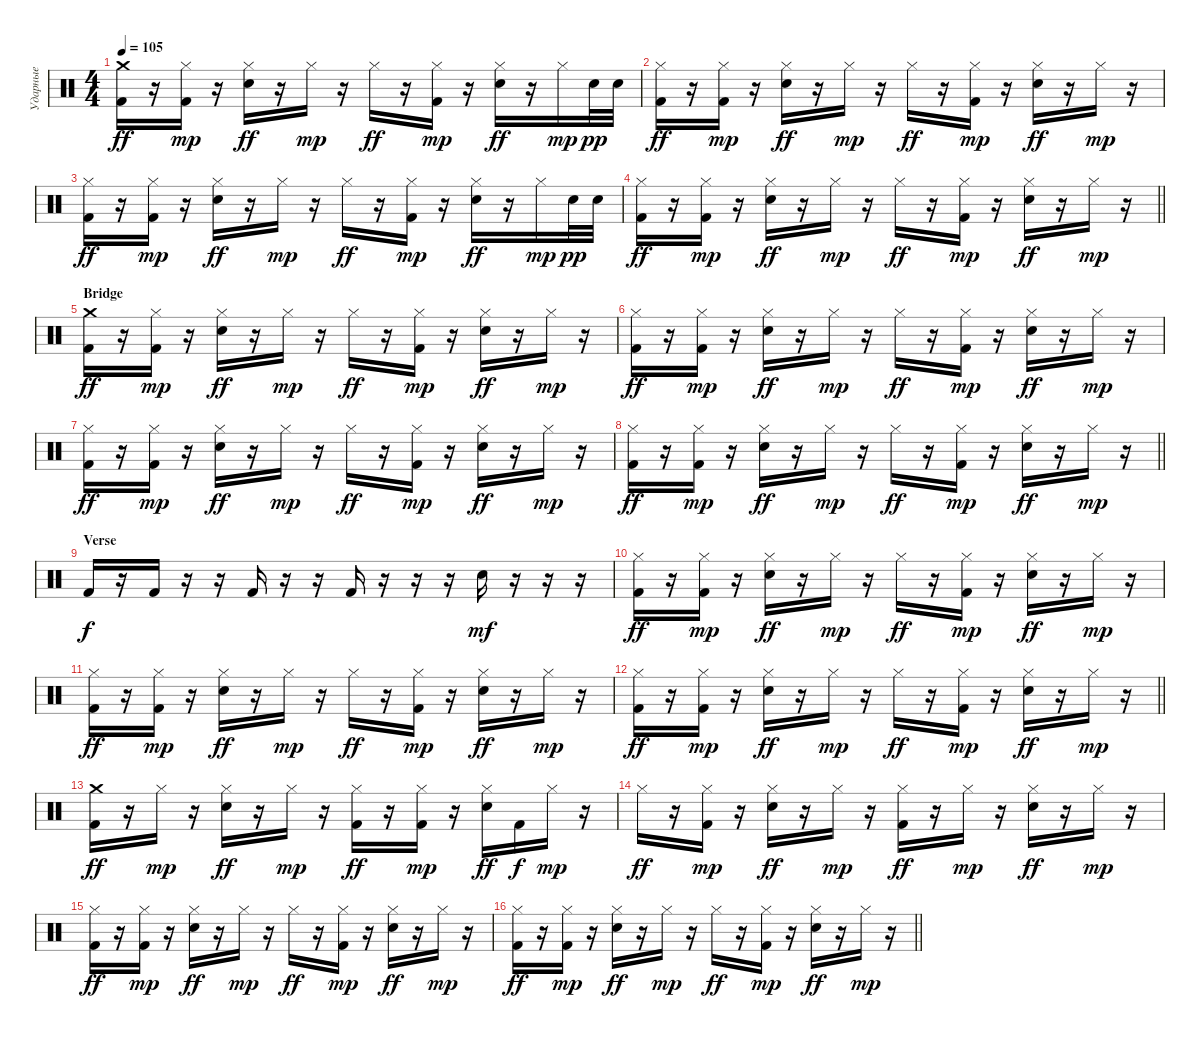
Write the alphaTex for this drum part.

\track ("Ударные" "Ударные") {instrument percussion}
\staff {score}
\articulation defaults
\ts (4 4)
\tempo 105
\clef neutral
\ks c
("Crash medium (hit)" "Kick (hit) 2").16{dy ff} r.16 ("Hi-Hat (closed)" "Kick (hit) 2").16{dy mp} r.16 ("Hi-Hat (closed)" "Electric Snare (hit)").16{dy ff} r.16 "Hi-Hat (closed)".16{dy mp} r.16 "Hi-Hat (closed)".16{dy ff} r.16 ("Hi-Hat (closed)" "Kick (hit) 2").16{dy mp} r.16 ("Hi-Hat (closed)" "Electric Snare (hit)").16{dy ff} r.16 "Hi-Hat (closed)".16{dy mp} "Electric Snare (hit)".32{dy pp} "Electric Snare (hit)".32 |
("Hi-Hat (closed)" "Kick (hit) 2").16{dy ff} r.16 ("Hi-Hat (closed)" "Kick (hit) 2").16{dy mp} r.16 ("Hi-Hat (closed)" "Electric Snare (hit)").16{dy ff} r.16 "Hi-Hat (closed)".16{dy mp} r.16 "Hi-Hat (closed)".16{dy ff} r.16 ("Hi-Hat (closed)" "Kick (hit) 2").16{dy mp} r.16 ("Hi-Hat (closed)" "Electric Snare (hit)").16{dy ff} r.16 "Hi-Hat (closed)".16{dy mp} r.16 |
("Hi-Hat (closed)" "Kick (hit) 2").16{dy ff} r.16 ("Hi-Hat (closed)" "Kick (hit) 2").16{dy mp} r.16 ("Hi-Hat (closed)" "Electric Snare (hit)").16{dy ff} r.16 "Hi-Hat (closed)".16{dy mp} r.16 "Hi-Hat (closed)".16{dy ff} r.16 ("Hi-Hat (closed)" "Kick (hit) 2").16{dy mp} r.16 ("Hi-Hat (closed)" "Electric Snare (hit)").16{dy ff} r.16 "Hi-Hat (closed)".16{dy mp} "Electric Snare (hit)".32{dy pp} "Electric Snare (hit)".32 |
\barLineRight lightlight
("Hi-Hat (closed)" "Kick (hit) 2").16{dy ff} r.16 ("Hi-Hat (closed)" "Kick (hit) 2").16{dy mp} r.16 ("Hi-Hat (closed)" "Electric Snare (hit)").16{dy ff} r.16 "Hi-Hat (closed)".16{dy mp} r.16 "Hi-Hat (closed)".16{dy ff} r.16 ("Hi-Hat (closed)" "Kick (hit) 2").16{dy mp} r.16 ("Hi-Hat (closed)" "Electric Snare (hit)").16{dy ff} r.16 "Hi-Hat (closed)".16{dy mp} r.16 |
\section ("" "Bridge")
("Crash medium (hit)" "Kick (hit) 2").16{dy ff} r.16 ("Hi-Hat (closed)" "Kick (hit) 2").16{dy mp} r.16 ("Hi-Hat (closed)" "Electric Snare (hit)").16{dy ff} r.16 "Hi-Hat (closed)".16{dy mp} r.16 "Hi-Hat (closed)".16{dy ff} r.16 ("Hi-Hat (closed)" "Kick (hit) 2").16{dy mp} r.16 ("Hi-Hat (closed)" "Electric Snare (hit)").16{dy ff} r.16 "Hi-Hat (closed)".16{dy mp} r.16 |
("Hi-Hat (closed)" "Kick (hit) 2").16{dy ff} r.16 ("Hi-Hat (closed)" "Kick (hit) 2").16{dy mp} r.16 ("Hi-Hat (closed)" "Electric Snare (hit)").16{dy ff} r.16 "Hi-Hat (closed)".16{dy mp} r.16 "Hi-Hat (closed)".16{dy ff} r.16 ("Hi-Hat (closed)" "Kick (hit) 2").16{dy mp} r.16 ("Hi-Hat (closed)" "Electric Snare (hit)").16{dy ff} r.16 "Hi-Hat (closed)".16{dy mp} r.16 |
("Hi-Hat (closed)" "Kick (hit) 2").16{dy ff} r.16 ("Hi-Hat (closed)" "Kick (hit) 2").16{dy mp} r.16 ("Hi-Hat (closed)" "Electric Snare (hit)").16{dy ff} r.16 "Hi-Hat (closed)".16{dy mp} r.16 "Hi-Hat (closed)".16{dy ff} r.16 ("Hi-Hat (closed)" "Kick (hit) 2").16{dy mp} r.16 ("Hi-Hat (closed)" "Electric Snare (hit)").16{dy ff} r.16 "Hi-Hat (closed)".16{dy mp} r.16 |
\barLineRight lightlight
("Hi-Hat (closed)" "Kick (hit) 2").16{dy ff} r.16 ("Hi-Hat (closed)" "Kick (hit) 2").16{dy mp} r.16 ("Hi-Hat (closed)" "Electric Snare (hit)").16{dy ff} r.16 "Hi-Hat (closed)".16{dy mp} r.16 "Hi-Hat (closed)".16{dy ff} r.16 ("Hi-Hat (closed)" "Kick (hit) 2").16{dy mp} r.16 ("Hi-Hat (closed)" "Electric Snare (hit)").16{dy ff} r.16 "Hi-Hat (closed)".16{dy mp} r.16 |
\section ("" "Verse")
"Kick (hit) 2".16{dy f} r.16 "Kick (hit) 2".16 r.16 r.16 "Kick (hit) 2".16 r.16 r.16 "Kick (hit) 2".16 r.16 r.16 r.16 "Electric Snare (hit)".16{dy mf} r.16 r.16 r.16 |
("Hi-Hat (closed)" "Kick (hit) 2").16{dy ff} r.16 ("Hi-Hat (closed)" "Kick (hit) 2").16{dy mp} r.16 ("Hi-Hat (closed)" "Electric Snare (hit)").16{dy ff} r.16 "Hi-Hat (closed)".16{dy mp} r.16 "Hi-Hat (closed)".16{dy ff} r.16 ("Hi-Hat (closed)" "Kick (hit) 2").16{dy mp} r.16 ("Hi-Hat (closed)" "Electric Snare (hit)").16{dy ff} r.16 "Hi-Hat (closed)".16{dy mp} r.16 |
("Hi-Hat (closed)" "Kick (hit) 2").16{dy ff} r.16 ("Hi-Hat (closed)" "Kick (hit) 2").16{dy mp} r.16 ("Hi-Hat (closed)" "Electric Snare (hit)").16{dy ff} r.16 "Hi-Hat (closed)".16{dy mp} r.16 "Hi-Hat (closed)".16{dy ff} r.16 ("Hi-Hat (closed)" "Kick (hit) 2").16{dy mp} r.16 ("Hi-Hat (closed)" "Electric Snare (hit)").16{dy ff} r.16 "Hi-Hat (closed)".16{dy mp} r.16 |
\barLineRight lightlight
("Hi-Hat (closed)" "Kick (hit) 2").16{dy ff} r.16 ("Hi-Hat (closed)" "Kick (hit) 2").16{dy mp} r.16 ("Hi-Hat (closed)" "Electric Snare (hit)").16{dy ff} r.16 "Hi-Hat (closed)".16{dy mp} r.16 "Hi-Hat (closed)".16{dy ff} r.16 ("Hi-Hat (closed)" "Kick (hit) 2").16{dy mp} r.16 ("Hi-Hat (closed)" "Electric Snare (hit)").16{dy ff} r.16 "Hi-Hat (closed)".16{dy mp} r.16 |
("Crash medium (hit)" "Kick (hit) 2").16{dy ff} r.16 "Hi-Hat (closed)".16{dy mp} r.16 ("Hi-Hat (closed)" "Electric Snare (hit)").16{dy ff} r.16 "Hi-Hat (closed)".16{dy mp} r.16 ("Hi-Hat (closed)" "Kick (hit) 2").16{dy ff} r.16 ("Hi-Hat (closed)" "Kick (hit) 2").16{dy mp} r.16 ("Hi-Hat (closed)" "Electric Snare (hit)").16{dy ff} "Kick (hit) 2".16{dy f} "Hi-Hat (closed)".16{dy mp} r.16 |
"Hi-Hat (closed)".16{dy ff} r.16 ("Hi-Hat (closed)" "Kick (hit) 2").16{dy mp} r.16 ("Hi-Hat (closed)" "Electric Snare (hit)").16{dy ff} r.16 "Hi-Hat (closed)".16{dy mp} r.16 ("Hi-Hat (closed)" "Kick (hit) 2").16{dy ff} r.16 "Hi-Hat (closed)".16{dy mp} r.16 ("Hi-Hat (closed)" "Electric Snare (hit)").16{dy ff} r.16 "Hi-Hat (closed)".16{dy mp} r.16 |
("Hi-Hat (closed)" "Kick (hit) 2").16{dy ff} r.16 ("Hi-Hat (closed)" "Kick (hit) 2").16{dy mp} r.16 ("Hi-Hat (closed)" "Electric Snare (hit)").16{dy ff} r.16 "Hi-Hat (closed)".16{dy mp} r.16 "Hi-Hat (closed)".16{dy ff} r.16 ("Hi-Hat (closed)" "Kick (hit) 2").16{dy mp} r.16 ("Hi-Hat (closed)" "Electric Snare (hit)").16{dy ff} r.16 "Hi-Hat (closed)".16{dy mp} r.16 |
\barLineRight lightlight
("Hi-Hat (closed)" "Kick (hit) 2").16{dy ff} r.16 ("Hi-Hat (closed)" "Kick (hit) 2").16{dy mp} r.16 ("Hi-Hat (closed)" "Electric Snare (hit)").16{dy ff} r.16 "Hi-Hat (closed)".16{dy mp} r.16 "Hi-Hat (closed)".16{dy ff} r.16 ("Hi-Hat (closed)" "Kick (hit) 2").16{dy mp} r.16 ("Hi-Hat (closed)" "Electric Snare (hit)").16{dy ff} r.16 "Hi-Hat (closed)".16{dy mp} r.16
